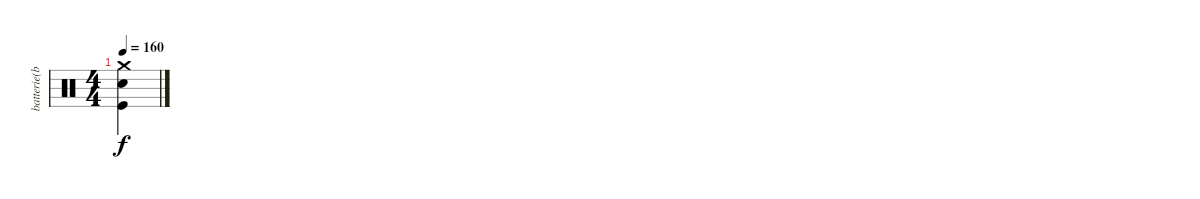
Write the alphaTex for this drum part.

\track ("batterie(brett)" "batterie(b") {instrument percussion}
\staff {score}
\articulation defaults
\ts (4 4)
\tempo 160
\clef neutral
\ks c
("Crash medium (hit)" "Snare (hit) 2" "Kick (hit)").4{dy f}
